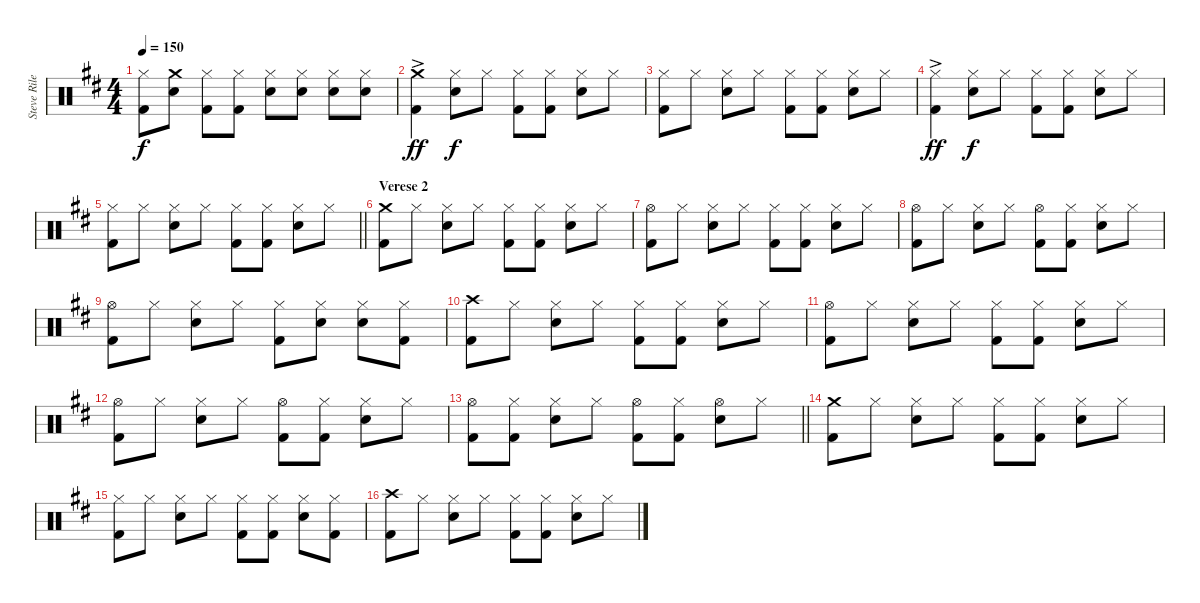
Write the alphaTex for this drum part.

\track ("Steve Riley" "Steve Rile") {instrument percussion}
\staff {score}
\articulation defaults
\ts (4 4)
\tempo 150
\clef neutral
\ks d
("Hi-Hat (closed)" "Kick (hit) 2").8{dy f} ("Crash medium (hit)" "Electric Snare (hit)").8 ("Hi-Hat (closed)" "Kick (hit) 2").8 ("Hi-Hat (closed)" "Kick (hit) 2").8 ("Hi-Hat (closed)" "Electric Snare (hit)").8 ("Hi-Hat (closed)" "Electric Snare (hit)").8 ("Hi-Hat (closed)" "Electric Snare (hit)").8 ("Hi-Hat (closed)" "Electric Snare (hit)").8 |
("Crash medium (hit)"{ac} "Kick (hit) 2").4{dy ff} ("Hi-Hat (closed)" "Electric Snare (hit)").8{dy f} "Hi-Hat (closed)".8 ("Hi-Hat (closed)" "Kick (hit) 2").8 ("Hi-Hat (closed)" "Kick (hit) 2").8 ("Hi-Hat (closed)" "Electric Snare (hit)").8 "Hi-Hat (closed)".8 |
("Hi-Hat (closed)" "Kick (hit) 2").8 "Hi-Hat (closed)".8 ("Hi-Hat (closed)" "Electric Snare (hit)").8 "Hi-Hat (closed)".8 ("Hi-Hat (closed)" "Kick (hit) 2").8 ("Hi-Hat (closed)" "Kick (hit) 2").8 ("Hi-Hat (closed)" "Electric Snare (hit)").8 "Hi-Hat (closed)".8 |
("Hi-Hat (closed)"{ac} "Kick (hit) 2").4{dy ff} ("Hi-Hat (closed)" "Electric Snare (hit)").8{dy f} "Hi-Hat (closed)".8 ("Hi-Hat (closed)" "Kick (hit) 2").8 ("Hi-Hat (closed)" "Kick (hit) 2").8 ("Hi-Hat (closed)" "Electric Snare (hit)").8 "Hi-Hat (closed)".8 |
\barLineRight lightlight
("Hi-Hat (closed)" "Kick (hit) 2").8 "Hi-Hat (closed)".8 ("Hi-Hat (closed)" "Electric Snare (hit)").8 "Hi-Hat (closed)".8 ("Hi-Hat (closed)" "Kick (hit) 2").8 ("Hi-Hat (closed)" "Kick (hit) 2").8 ("Hi-Hat (closed)" "Electric Snare (hit)").8 "Hi-Hat (closed)".8 |
\section ("" "Verese 2")
("Crash medium (hit)" "Kick (hit) 2").8 "Hi-Hat (closed)".8 ("Hi-Hat (closed)" "Electric Snare (hit)").8 "Hi-Hat (closed)".8 ("Hi-Hat (closed)" "Kick (hit) 2").8 ("Hi-Hat (closed)" "Kick (hit) 2").8 ("Hi-Hat (closed)" "Electric Snare (hit)").8 "Hi-Hat (closed)".8 |
("Hi-Hat (open)" "Kick (hit) 2").8 "Hi-Hat (closed)".8 ("Hi-Hat (closed)" "Electric Snare (hit)").8 "Hi-Hat (closed)".8 ("Hi-Hat (closed)" "Kick (hit) 2").8 ("Hi-Hat (closed)" "Kick (hit) 2").8 ("Hi-Hat (closed)" "Electric Snare (hit)").8 "Hi-Hat (closed)".8 |
("Hi-Hat (open)" "Kick (hit) 2").8 "Hi-Hat (closed)".8 ("Hi-Hat (closed)" "Electric Snare (hit)").8 "Hi-Hat (closed)".8 ("Hi-Hat (open)" "Kick (hit) 2").8 ("Hi-Hat (closed)" "Kick (hit) 2").8 ("Hi-Hat (closed)" "Electric Snare (hit)").8 "Hi-Hat (closed)".8 |
("Hi-Hat (open)" "Kick (hit) 2").8 "Hi-Hat (closed)".8 ("Hi-Hat (closed)" "Electric Snare (hit)").8 "Hi-Hat (closed)".8 ("Hi-Hat (closed)" "Kick (hit) 2").8 ("Hi-Hat (closed)" "Electric Snare (hit)").8 ("Hi-Hat (closed)" "Electric Snare (hit)").8 ("Hi-Hat (closed)" "Kick (hit) 2").8 |
("Crash high (hit)" "Kick (hit) 2").8 "Hi-Hat (closed)".8 ("Hi-Hat (closed)" "Electric Snare (hit)").8 "Hi-Hat (closed)".8 ("Hi-Hat (closed)" "Kick (hit) 2").8 ("Hi-Hat (closed)" "Kick (hit) 2").8 ("Hi-Hat (closed)" "Electric Snare (hit)").8 "Hi-Hat (closed)".8 |
("Hi-Hat (open)" "Kick (hit) 2").8 "Hi-Hat (closed)".8 ("Hi-Hat (closed)" "Electric Snare (hit)").8 "Hi-Hat (closed)".8 ("Hi-Hat (closed)" "Kick (hit) 2").8 ("Hi-Hat (closed)" "Kick (hit) 2").8 ("Hi-Hat (closed)" "Electric Snare (hit)").8 "Hi-Hat (closed)".8 |
("Hi-Hat (open)" "Kick (hit) 2").8 "Hi-Hat (closed)".8 ("Hi-Hat (closed)" "Electric Snare (hit)").8 "Hi-Hat (closed)".8 ("Hi-Hat (open)" "Kick (hit) 2").8 ("Hi-Hat (closed)" "Kick (hit) 2").8 ("Hi-Hat (closed)" "Electric Snare (hit)").8 "Hi-Hat (closed)".8 |
\barLineRight lightlight
("Hi-Hat (open)" "Kick (hit) 2").8 ("Hi-Hat (closed)" "Kick (hit) 2").8 ("Hi-Hat (closed)" "Electric Snare (hit)").8 "Hi-Hat (closed)".8 ("Hi-Hat (open)" "Kick (hit) 2").8 ("Hi-Hat (closed)" "Kick (hit) 2").8 ("Hi-Hat (open)" "Electric Snare (hit)").8 "Hi-Hat (closed)".8 |
("Crash medium (hit)" "Kick (hit) 2").8 "Hi-Hat (closed)".8 ("Hi-Hat (closed)" "Electric Snare (hit)").8 "Hi-Hat (closed)".8 ("Hi-Hat (closed)" "Kick (hit) 2").8 ("Hi-Hat (closed)" "Kick (hit) 2").8 ("Hi-Hat (closed)" "Electric Snare (hit)").8 "Hi-Hat (closed)".8 |
("Hi-Hat (closed)" "Kick (hit) 2").8 "Hi-Hat (closed)".8 ("Hi-Hat (closed)" "Electric Snare (hit)").8 "Hi-Hat (closed)".8 ("Hi-Hat (closed)" "Kick (hit) 2").8 ("Hi-Hat (closed)" "Kick (hit) 2").8 ("Hi-Hat (closed)" "Electric Snare (hit)").8 ("Hi-Hat (closed)" "Kick (hit) 2").8 |
("Crash high (hit)" "Kick (hit) 2").8 "Hi-Hat (closed)".8 ("Hi-Hat (closed)" "Electric Snare (hit)").8 "Hi-Hat (closed)".8 ("Hi-Hat (closed)" "Kick (hit) 2").8 ("Hi-Hat (closed)" "Kick (hit) 2").8 ("Hi-Hat (closed)" "Electric Snare (hit)").8 "Hi-Hat (closed)".8
